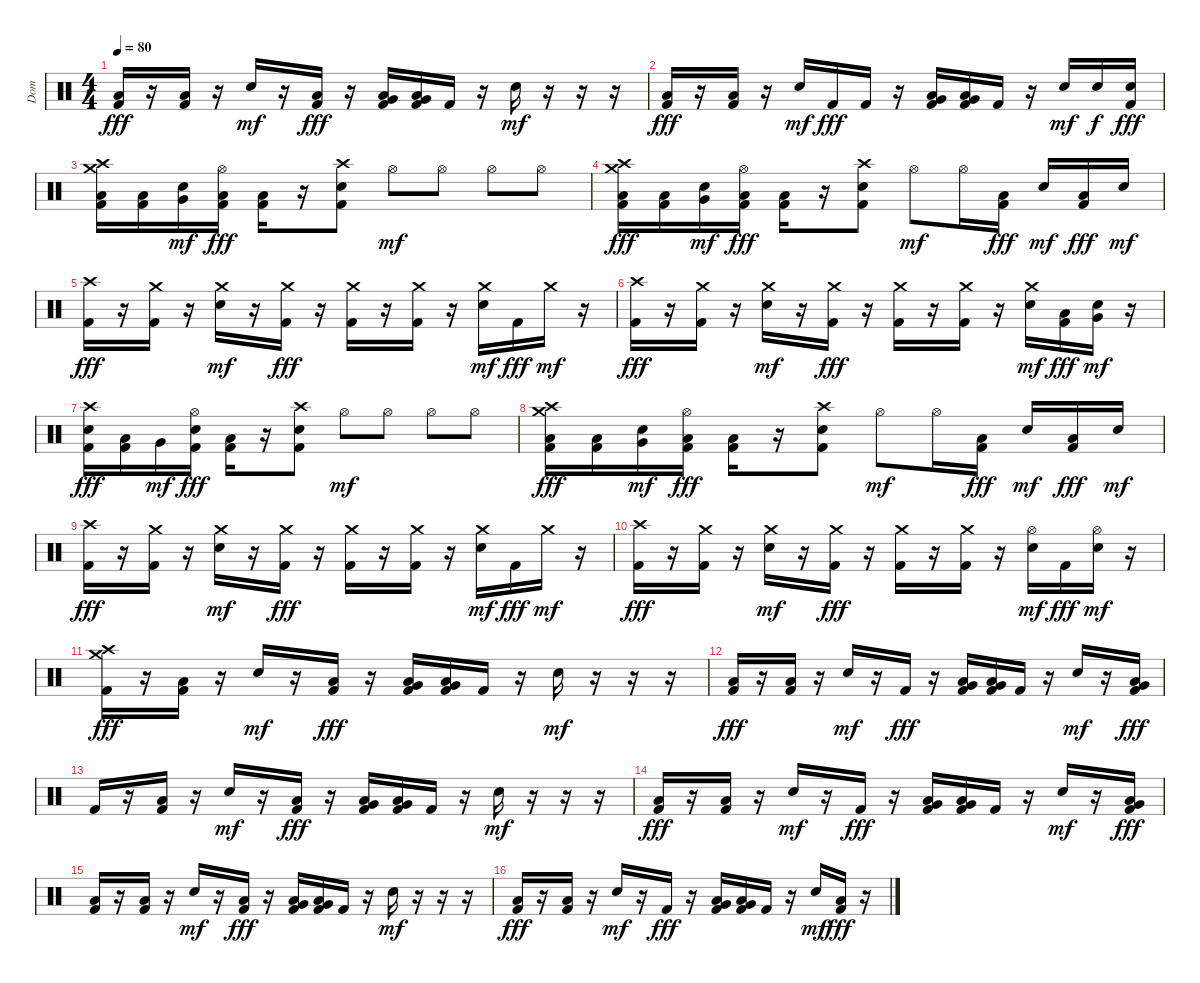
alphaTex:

\track ("Dom" "Dom") {instrument percussion}
\staff {score}
\articulation defaults
\ts (4 4)
\tempo 80
\clef neutral
\ks c
("Low Floor Tom (hit)" "Kick (hit) 2").16{dy fff} r.16 ("Low Floor Tom (hit)" "Kick (hit) 2").16 r.16 "Electric Snare (hit)".16{dy mf} r.16 ("Low Floor Tom (hit)" "Kick (hit) 2").16{dy fff} r.16 ("Very Low Tom (hit)" "Low Tom (hit)" "Kick (hit) 2").16 ("Low Floor Tom (hit)" "Very Low Tom (hit)" "Kick (hit) 2").16 "Kick (hit) 2".16 r.16 "Electric Snare (hit)".16{dy mf} r.16 r.16 r.16 |
("Low Floor Tom (hit)" "Kick (hit) 2").16{dy fff} r.16 ("Low Floor Tom (hit)" "Kick (hit) 2").16 r.16 "Electric Snare (hit)".16{dy mf} "Kick (hit) 2".16{dy fff} "Kick (hit) 2".16 r.16 ("Very Low Tom (hit)" "Low Tom (hit)" "Kick (hit) 2").16 ("Low Floor Tom (hit)" "Very Low Tom (hit)" "Kick (hit) 2").16 "Kick (hit) 2".16 r.16 "Electric Snare (hit)".16{dy mf} "Electric Snare (hit)".16{dy f} ("Electric Snare (hit)" "Kick (hit) 2").16{dy fff} |
("Crash high (hit)" "Crash medium (hit)" "Low Floor Tom (hit)" "Kick (hit) 2").16 ("Low Floor Tom (hit)" "Kick (hit) 2").16 ("Electric Snare (hit)" "Very Low Tom (hit)").16{dy mf} ("Hi-Hat (open)" "Low Floor Tom (hit)" "Kick (hit) 2").16{dy fff} ("Low Floor Tom (hit)" "Kick (hit) 2").16 r.16 ("Crash high (hit)" "Electric Snare (hit)" "Kick (hit) 2").8 "Hi-Hat (open)".8{dy mf} "Hi-Hat (open)".8 "Hi-Hat (open)".8 "Hi-Hat (open)".8 |
("Crash high (hit)" "Crash medium (hit)" "Low Floor Tom (hit)" "Kick (hit) 2").16{dy fff} ("Low Floor Tom (hit)" "Kick (hit) 2").16 ("Electric Snare (hit)" "Very Low Tom (hit)").16{dy mf} ("Hi-Hat (open)" "Low Floor Tom (hit)" "Kick (hit) 2").16{dy fff} ("Low Floor Tom (hit)" "Kick (hit) 2").16 r.16 ("Crash high (hit)" "Electric Snare (hit)" "Kick (hit) 2").8 "Hi-Hat (open)".8{dy mf} "Hi-Hat (open)".16 ("Low Floor Tom (hit)" "Kick (hit) 2").16{dy fff} "Electric Snare (hit)".16{dy mf} ("Low Tom (hit)" "Kick (hit) 2").16{dy fff} "Electric Snare (hit)".16{dy mf} |
("Crash high (hit)" "Kick (hit) 2").16{dy fff} r.16 ("Crash medium (hit)" "Kick (hit) 2").16 r.16 ("Crash medium (hit)" "Electric Snare (hit)").16{dy mf} r.16 ("Crash medium (hit)" "Kick (hit) 2").16{dy fff} r.16 ("Crash medium (hit)" "Kick (hit) 2").16 r.16 ("Crash medium (hit)" "Kick (hit) 2").16 r.16 ("Crash medium (hit)" "Electric Snare (hit)").16{dy mf} "Kick (hit) 2".16{dy fff} "Crash medium (hit)".16{dy mf} r.16 |
("Crash high (hit)" "Kick (hit) 2").16{dy fff} r.16 ("Crash medium (hit)" "Kick (hit) 2").16 r.16 ("Crash medium (hit)" "Electric Snare (hit)").16{dy mf} r.16 ("Crash medium (hit)" "Kick (hit) 2").16{dy fff} r.16 ("Crash medium (hit)" "Kick (hit) 2").16 r.16 ("Crash medium (hit)" "Kick (hit) 2").16 r.16 ("Crash medium (hit)" "Electric Snare (hit)").16{dy mf} ("Low Tom (hit)" "Kick (hit) 2").16{dy fff} ("Electric Snare (hit)" "Very Low Tom (hit)").16{dy mf} r.16 |
("Crash high (hit)" "Electric Snare (hit)" "Kick (hit) 2").16{dy fff} ("Low Floor Tom (hit)" "Kick (hit) 2").16 "Very Low Tom (hit)".16{dy mf} ("Hi-Hat (open)" "Electric Snare (hit)" "Kick (hit) 2").16{dy fff} ("Low Floor Tom (hit)" "Kick (hit) 2").16 r.16 ("Crash high (hit)" "Electric Snare (hit)" "Kick (hit) 2").8 "Hi-Hat (open)".8{dy mf} "Hi-Hat (open)".8 "Hi-Hat (open)".8 "Hi-Hat (open)".8 |
("Crash high (hit)" "Crash medium (hit)" "Low Floor Tom (hit)" "Kick (hit) 2").16{dy fff} ("Low Floor Tom (hit)" "Kick (hit) 2").16 ("Electric Snare (hit)" "Very Low Tom (hit)").16{dy mf} ("Hi-Hat (open)" "Low Floor Tom (hit)" "Kick (hit) 2").16{dy fff} ("Low Floor Tom (hit)" "Kick (hit) 2").16 r.16 ("Crash high (hit)" "Electric Snare (hit)" "Kick (hit) 2").8 "Hi-Hat (open)".8{dy mf} "Hi-Hat (open)".16 ("Low Floor Tom (hit)" "Kick (hit) 2").16{dy fff} "Electric Snare (hit)".16{dy mf} ("Low Tom (hit)" "Kick (hit) 2").16{dy fff} "Electric Snare (hit)".16{dy mf} |
("Crash high (hit)" "Kick (hit) 2").16{dy fff} r.16 ("Crash medium (hit)" "Kick (hit) 2").16 r.16 ("Crash medium (hit)" "Electric Snare (hit)").16{dy mf} r.16 ("Crash medium (hit)" "Kick (hit) 2").16{dy fff} r.16 ("Crash medium (hit)" "Kick (hit) 2").16 r.16 ("Crash medium (hit)" "Kick (hit) 2").16 r.16 ("Crash medium (hit)" "Electric Snare (hit)").16{dy mf} "Kick (hit) 2".16{dy fff} "Crash medium (hit)".16{dy mf} r.16 |
("Crash high (hit)" "Kick (hit) 2").16{dy fff} r.16 ("Crash medium (hit)" "Kick (hit) 2").16 r.16 ("Crash medium (hit)" "Electric Snare (hit)").16{dy mf} r.16 ("Crash medium (hit)" "Kick (hit) 2").16{dy fff} r.16 ("Crash medium (hit)" "Kick (hit) 2").16 r.16 ("Crash medium (hit)" "Kick (hit) 2").16 r.16 ("Hi-Hat (open)" "Electric Snare (hit)").16{dy mf} "Kick (hit) 2".16{dy fff} ("Hi-Hat (open)" "Electric Snare (hit)").16{dy mf} r.16 |
("Crash high (hit)" "Crash medium (hit)" "Kick (hit) 2").16{dy fff} r.16 ("Low Floor Tom (hit)" "Kick (hit) 2").16 r.16 "Electric Snare (hit)".16{dy mf} r.16 ("Low Floor Tom (hit)" "Kick (hit) 2").16{dy fff} r.16 ("Very Low Tom (hit)" "Low Tom (hit)" "Kick (hit) 2").16 ("Low Floor Tom (hit)" "Very Low Tom (hit)" "Kick (hit) 2").16 "Kick (hit) 2".16 r.16 "Electric Snare (hit)".16{dy mf} r.16 r.16 r.16 |
("Low Floor Tom (hit)" "Kick (hit) 2").16{dy fff} r.16 ("Low Floor Tom (hit)" "Kick (hit) 2").16 r.16 "Electric Snare (hit)".16{dy mf} r.16 "Kick (hit) 2".16{dy fff} r.16 ("Very Low Tom (hit)" "Low Tom (hit)" "Kick (hit) 2").16 ("Low Floor Tom (hit)" "Very Low Tom (hit)" "Kick (hit) 2").16 "Kick (hit) 2".16 r.16 "Electric Snare (hit)".16{dy mf} r.16 ("Very Low Tom (hit)" "Low Floor Tom (hit)" "Kick (hit) 2").16{dy fff} |
"Kick (hit) 2".16 r.16 ("Low Floor Tom (hit)" "Kick (hit) 2").16 r.16 "Electric Snare (hit)".16{dy mf} r.16 ("Low Floor Tom (hit)" "Kick (hit) 2").16{dy fff} r.16 ("Very Low Tom (hit)" "Low Tom (hit)" "Kick (hit) 2").16 ("Low Floor Tom (hit)" "Very Low Tom (hit)" "Kick (hit) 2").16 "Kick (hit) 2".16 r.16 "Electric Snare (hit)".16{dy mf} r.16 r.16 r.16 |
("Low Floor Tom (hit)" "Kick (hit) 2").16{dy fff} r.16 ("Low Floor Tom (hit)" "Kick (hit) 2").16 r.16 "Electric Snare (hit)".16{dy mf} r.16 "Kick (hit) 2".16{dy fff} r.16 ("Very Low Tom (hit)" "Low Tom (hit)" "Kick (hit) 2").16 ("Low Floor Tom (hit)" "Very Low Tom (hit)" "Kick (hit) 2").16 "Kick (hit) 2".16 r.16 "Electric Snare (hit)".16{dy mf} r.16 ("Very Low Tom (hit)" "Low Floor Tom (hit)" "Kick (hit) 2").16{dy fff} |
("Low Floor Tom (hit)" "Kick (hit) 2").16 r.16 ("Low Floor Tom (hit)" "Kick (hit) 2").16 r.16 "Electric Snare (hit)".16{dy mf} r.16 ("Low Floor Tom (hit)" "Kick (hit) 2").16{dy fff} r.16 ("Very Low Tom (hit)" "Low Tom (hit)" "Kick (hit) 2").16 ("Low Floor Tom (hit)" "Very Low Tom (hit)" "Kick (hit) 2").16 "Kick (hit) 2".16 r.16 "Electric Snare (hit)".16{dy mf} r.16 r.16 r.16 |
("Low Floor Tom (hit)" "Kick (hit) 2").16{dy fff} r.16 ("Low Floor Tom (hit)" "Kick (hit) 2").16 r.16 "Electric Snare (hit)".16{dy mf} r.16 "Kick (hit) 2".16{dy fff} r.16 ("Very Low Tom (hit)" "Low Tom (hit)" "Kick (hit) 2").16 ("Low Floor Tom (hit)" "Very Low Tom (hit)" "Kick (hit) 2").16 "Kick (hit) 2".16 r.16 "Electric Snare (hit)".16{dy mf} ("Low Floor Tom (hit)" "Kick (hit) 2").16{dy fff} r.16
